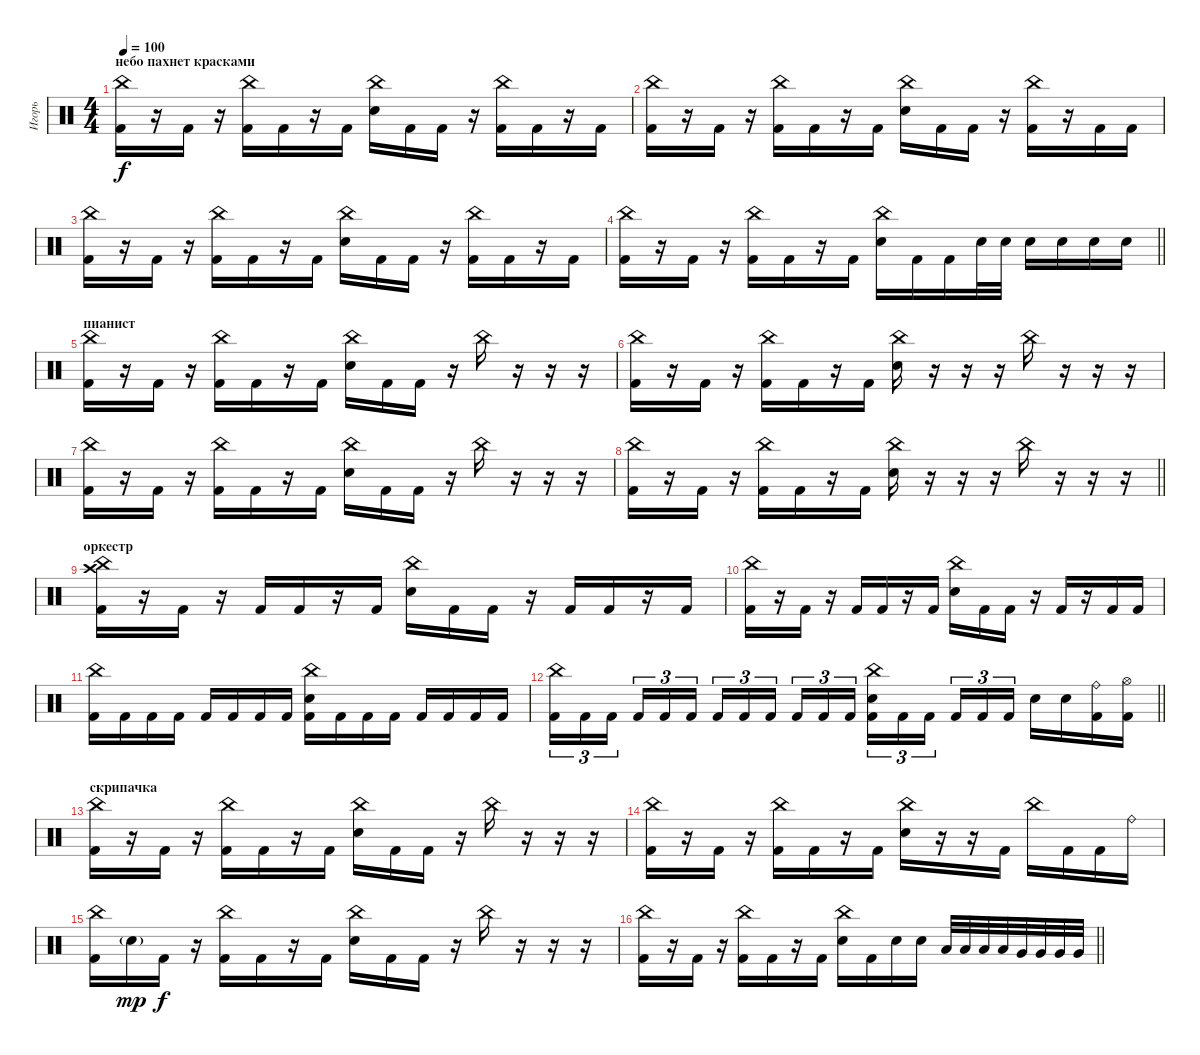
\track ("Игорь" "Игорь") {instrument percussion}
\staff {score}
\articulation defaults
\ts (4 4)
\section ("" "небо пахнет красками")
\tempo 100
\clef neutral
\ks c
("China (hit)" "Kick (hit) 2").16{dy f} r.16 "Kick (hit) 2".16 r.16 ("China (hit)" "Kick (hit) 2").16 "Kick (hit) 2".16 r.16 "Kick (hit) 2".16 ("China (hit)" "Electric Snare (hit)").16 "Kick (hit) 2".16 "Kick (hit) 2".16 r.16 ("China (hit)" "Kick (hit) 2").16 "Kick (hit) 2".16 r.16 "Kick (hit) 2".16 |
("China (hit)" "Kick (hit) 2").16 r.16 "Kick (hit) 2".16 r.16 ("China (hit)" "Kick (hit) 2").16 "Kick (hit) 2".16 r.16 "Kick (hit) 2".16 ("China (hit)" "Electric Snare (hit)").16 "Kick (hit) 2".16 "Kick (hit) 2".16 r.16 ("China (hit)" "Kick (hit) 2").16 r.16 "Kick (hit) 2".16 "Kick (hit) 2".16 |
("China (hit)" "Kick (hit) 2").16 r.16 "Kick (hit) 2".16 r.16 ("China (hit)" "Kick (hit) 2").16 "Kick (hit) 2".16 r.16 "Kick (hit) 2".16 ("China (hit)" "Electric Snare (hit)").16 "Kick (hit) 2".16 "Kick (hit) 2".16 r.16 ("China (hit)" "Kick (hit) 2").16 "Kick (hit) 2".16 r.16 "Kick (hit) 2".16 |
\barLineRight lightlight
("China (hit)" "Kick (hit) 2").16 r.16 "Kick (hit) 2".16 r.16 ("China (hit)" "Kick (hit) 2").16 "Kick (hit) 2".16 r.16 "Kick (hit) 2".16 ("China (hit)" "Electric Snare (hit)").16 "Kick (hit) 2".16 "Kick (hit) 2".16 "Electric Snare (hit)".32 "Electric Snare (hit)".32 "Electric Snare (hit)".16 "Electric Snare (hit)".16 "Electric Snare (hit)".16 "Electric Snare (hit)".16 |
\section ("" "пианист")
("China (hit)" "Kick (hit) 2").16 r.16 "Kick (hit) 2".16 r.16 ("China (hit)" "Kick (hit) 2").16 "Kick (hit) 2".16 r.16 "Kick (hit) 2".16 ("China (hit)" "Electric Snare (hit)").16 "Kick (hit) 2".16 "Kick (hit) 2".16 r.16 "China (hit)".16 r.16 r.16 r.16 |
("China (hit)" "Kick (hit) 2").16 r.16 "Kick (hit) 2".16 r.16 ("China (hit)" "Kick (hit) 2").16 "Kick (hit) 2".16 r.16 "Kick (hit) 2".16 ("China (hit)" "Electric Snare (hit)").16 r.16 r.16 r.16 "China (hit)".16 r.16 r.16 r.16 |
("China (hit)" "Kick (hit) 2").16 r.16 "Kick (hit) 2".16 r.16 ("China (hit)" "Kick (hit) 2").16 "Kick (hit) 2".16 r.16 "Kick (hit) 2".16 ("China (hit)" "Electric Snare (hit)").16 "Kick (hit) 2".16 "Kick (hit) 2".16 r.16 "China (hit)".16 r.16 r.16 r.16 |
\barLineRight lightlight
("China (hit)" "Kick (hit) 2").16 r.16 "Kick (hit) 2".16 r.16 ("China (hit)" "Kick (hit) 2").16 "Kick (hit) 2".16 r.16 "Kick (hit) 2".16 ("China (hit)" "Electric Snare (hit)").16 r.16 r.16 r.16 "China (hit)".16 r.16 r.16 r.16 |
\section ("" "оркестр")
("Crash high (hit)" "China (hit)" "Kick (hit) 2").16 r.16 "Kick (hit) 2".16 r.16 "Kick (hit) 2".16 "Kick (hit) 2".16 r.16 "Kick (hit) 2".16 ("China (hit)" "Electric Snare (hit)").16 "Kick (hit) 2".16 "Kick (hit) 2".16 r.16 "Kick (hit) 2".16 "Kick (hit) 2".16 r.16 "Kick (hit) 2".16 |
("China (hit)" "Kick (hit) 2").16 r.16 "Kick (hit) 2".16 r.16 "Kick (hit) 2".16 "Kick (hit) 2".16 r.16 "Kick (hit) 2".16 ("China (hit)" "Electric Snare (hit)").16 "Kick (hit) 2".16 "Kick (hit) 2".16 r.16 "Kick (hit) 2".16 r.16 "Kick (hit) 2".16 "Kick (hit) 2".16 |
("China (hit)" "Kick (hit) 2").16 "Kick (hit) 2".16 "Kick (hit) 2".16 "Kick (hit) 2".16 "Kick (hit) 2".16 "Kick (hit) 2".16 "Kick (hit) 2".16 "Kick (hit) 2".16 ("China (hit)" "Electric Snare (hit)" "Kick (hit) 2").16 "Kick (hit) 2".16 "Kick (hit) 2".16 "Kick (hit) 2".16 "Kick (hit) 2".16 "Kick (hit) 2".16 "Kick (hit) 2".16 "Kick (hit) 2".16 |
\barLineRight lightlight
("China (hit)" "Kick (hit) 2").16{tu (3 2)} "Kick (hit) 2".16{tu (3 2)} "Kick (hit) 2".16{tu (3 2) beam splitsecondary} "Kick (hit) 2".16{tu (3 2)} "Kick (hit) 2".16{tu (3 2)} "Kick (hit) 2".16{tu (3 2)} "Kick (hit) 2".16{tu (3 2)} "Kick (hit) 2".16{tu (3 2)} "Kick (hit) 2".16{tu (3 2) beam splitsecondary} "Kick (hit) 2".16{tu (3 2)} "Kick (hit) 2".16{tu (3 2)} "Kick (hit) 2".16{tu (3 2)} ("China (hit)" "Electric Snare (hit)" "Kick (hit) 2").16{tu (3 2)} "Kick (hit) 2".16{tu (3 2)} "Kick (hit) 2".16{tu (3 2) beam splitsecondary} "Kick (hit) 2".16{tu (3 2)} "Kick (hit) 2".16{tu (3 2)} "Kick (hit) 2".16{tu (3 2)} "Electric Snare (hit)".16 "Electric Snare (hit)".16 ("Ride (bell)" "Kick (hit) 2").16 ("Hi-Hat (open)" "Kick (hit) 2").16 |
\section ("" "скрипачка")
("China (hit)" "Kick (hit) 2").16 r.16 "Kick (hit) 2".16 r.16 ("China (hit)" "Kick (hit) 2").16 "Kick (hit) 2".16 r.16 "Kick (hit) 2".16 ("China (hit)" "Electric Snare (hit)").16 "Kick (hit) 2".16 "Kick (hit) 2".16 r.16 "China (hit)".16 r.16 r.16 r.16 |
("China (hit)" "Kick (hit) 2").16 r.16 "Kick (hit) 2".16 r.16 ("China (hit)" "Kick (hit) 2").16 "Kick (hit) 2".16 r.16 "Kick (hit) 2".16 ("China (hit)" "Electric Snare (hit)").16 r.16 r.16 "Kick (hit) 2".16 "China (hit)".16 "Kick (hit) 2".16 "Kick (hit) 2".16 "Ride (bell)".16 |
("China (hit)" "Kick (hit) 2").16 "Electric Snare (hit)"{g}.16{dy mp} "Kick (hit) 2".16{dy f} r.16 ("China (hit)" "Kick (hit) 2").16 "Kick (hit) 2".16 r.16 "Kick (hit) 2".16 ("China (hit)" "Electric Snare (hit)").16 "Kick (hit) 2".16 "Kick (hit) 2".16 r.16 "China (hit)".16 r.16 r.16 r.16 |
\barLineRight lightlight
("China (hit)" "Kick (hit) 2").16 r.16 "Kick (hit) 2".16 r.16 ("China (hit)" "Kick (hit) 2").16 "Kick (hit) 2".16 r.16 "Kick (hit) 2".16 ("China (hit)" "Electric Snare (hit)").16 "Kick (hit) 2".16 "Electric Snare (hit)".16 "Electric Snare (hit)".16 "Low Tom (hit)".32 "Low Tom (hit)".32 "Low Tom (hit)".32 "Low Tom (hit)".32 "Very Low Tom (hit)".32 "Very Low Tom (hit)".32 "Very Low Tom (hit)".32 "Very Low Tom (hit)".32
